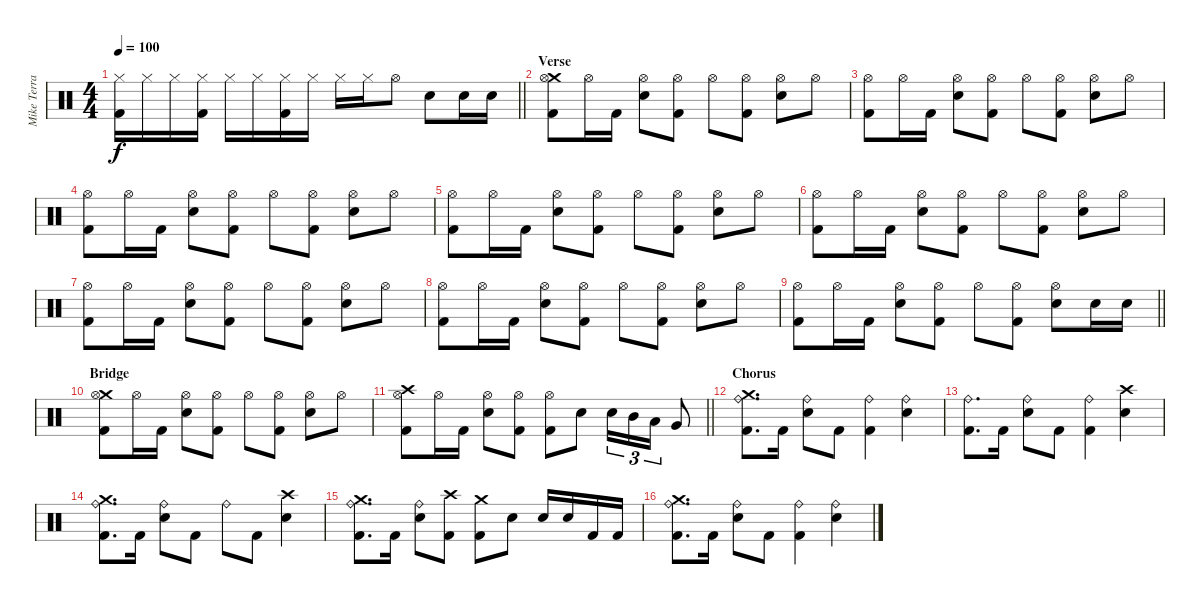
\track ("Mike Terrana" "Mike Terra") {instrument percussion}
\staff {score}
\articulation defaults
\ts (4 4)
\tempo 100
\clef neutral
\barLineRight lightlight
\ks c
("Hi-Hat (closed)" "Kick (hit) 2").16{dy f} "Hi-Hat (closed)".16 "Hi-Hat (closed)".16 ("Hi-Hat (closed)" "Kick (hit) 2").16 "Hi-Hat (closed)".16 "Hi-Hat (closed)".16 ("Hi-Hat (closed)" "Kick (hit) 2").16 "Hi-Hat (closed)".16 "Hi-Hat (closed)".16 "Hi-Hat (closed)".16 "Hi-Hat (open)".8 "Snare (hit) 2".8 "Snare (hit) 2".16 "Snare (hit) 2".16 |
\section ("" "Verse")
("Crash medium (hit)" "Hi-Hat (open)" "Kick (hit) 2").8 "Hi-Hat (open)".16 "Kick (hit) 2".16 ("Hi-Hat (open)" "Snare (hit) 2").8 ("Hi-Hat (open)" "Kick (hit) 2").8 "Hi-Hat (open)".8 ("Hi-Hat (open)" "Kick (hit) 2").8 ("Hi-Hat (open)" "Snare (hit) 2").8 "Hi-Hat (open)".8 |
("Hi-Hat (open)" "Kick (hit) 2").8 "Hi-Hat (open)".16 "Kick (hit) 2".16 ("Hi-Hat (open)" "Snare (hit) 2").8 ("Hi-Hat (open)" "Kick (hit) 2").8 "Hi-Hat (open)".8 ("Hi-Hat (open)" "Kick (hit) 2").8 ("Hi-Hat (open)" "Snare (hit) 2").8 "Hi-Hat (open)".8 |
("Hi-Hat (open)" "Kick (hit) 2").8 "Hi-Hat (open)".16 "Kick (hit) 2".16 ("Hi-Hat (open)" "Snare (hit) 2").8 ("Hi-Hat (open)" "Kick (hit) 2").8 "Hi-Hat (open)".8 ("Hi-Hat (open)" "Kick (hit) 2").8 ("Hi-Hat (open)" "Snare (hit) 2").8 "Hi-Hat (open)".8 |
("Hi-Hat (open)" "Kick (hit) 2").8 "Hi-Hat (open)".16 "Kick (hit) 2".16 ("Hi-Hat (open)" "Snare (hit) 2").8 ("Hi-Hat (open)" "Kick (hit) 2").8 "Hi-Hat (open)".8 ("Hi-Hat (open)" "Kick (hit) 2").8 ("Hi-Hat (open)" "Snare (hit) 2").8 "Hi-Hat (open)".8 |
("Hi-Hat (open)" "Kick (hit) 2").8 "Hi-Hat (open)".16 "Kick (hit) 2".16 ("Hi-Hat (open)" "Snare (hit) 2").8 ("Hi-Hat (open)" "Kick (hit) 2").8 "Hi-Hat (open)".8 ("Hi-Hat (open)" "Kick (hit) 2").8 ("Hi-Hat (open)" "Snare (hit) 2").8 "Hi-Hat (open)".8 |
("Hi-Hat (open)" "Kick (hit) 2").8 "Hi-Hat (open)".16 "Kick (hit) 2".16 ("Hi-Hat (open)" "Snare (hit) 2").8 ("Hi-Hat (open)" "Kick (hit) 2").8 "Hi-Hat (open)".8 ("Hi-Hat (open)" "Kick (hit) 2").8 ("Hi-Hat (open)" "Snare (hit) 2").8 "Hi-Hat (open)".8 |
("Hi-Hat (open)" "Kick (hit) 2").8 "Hi-Hat (open)".16 "Kick (hit) 2".16 ("Hi-Hat (open)" "Snare (hit) 2").8 ("Hi-Hat (open)" "Kick (hit) 2").8 "Hi-Hat (open)".8 ("Hi-Hat (open)" "Kick (hit) 2").8 ("Hi-Hat (open)" "Snare (hit) 2").8 "Hi-Hat (open)".8 |
\barLineRight lightlight
("Hi-Hat (open)" "Kick (hit) 2").8 "Hi-Hat (open)".16 "Kick (hit) 2".16 ("Hi-Hat (open)" "Snare (hit) 2").8 ("Hi-Hat (open)" "Kick (hit) 2").8 "Hi-Hat (open)".8 ("Hi-Hat (open)" "Kick (hit) 2").8 ("Hi-Hat (open)" "Snare (hit) 2").8 "Snare (hit) 2".16 "Snare (hit) 2".16 |
\section ("" "Bridge")
("Crash medium (hit)" "Hi-Hat (open)" "Kick (hit) 2").8 "Hi-Hat (open)".16 "Kick (hit) 2".16 ("Hi-Hat (open)" "Snare (hit) 2").8 ("Hi-Hat (open)" "Kick (hit) 2").8 "Hi-Hat (open)".8 ("Hi-Hat (open)" "Kick (hit) 2").8 ("Hi-Hat (open)" "Snare (hit) 2").8 "Hi-Hat (open)".8 |
\barLineRight lightlight
("Crash high (hit)" "Hi-Hat (open)" "Kick (hit) 2").8 "Hi-Hat (open)".16 "Kick (hit) 2".16 ("Hi-Hat (open)" "Snare (hit) 2").8 ("Hi-Hat (open)" "Kick (hit) 2").8 ("Hi-Hat (open)" "Kick (hit) 2").8 "Snare (hit) 2".8 "Snare (hit) 2".16{tu (3 2)} "Mid Tom (hit)".16{tu (3 2)} "Low Tom (hit)".16{tu (3 2)} "Very Low Tom (hit)".8 |
\section ("" "Chorus")
("Crash medium (hit)" "Ride (bell)" "Kick (hit) 2").8{d} "Kick (hit) 2".16 ("Ride (bell)" "Snare (hit) 2").8 "Kick (hit) 2".8 ("Ride (bell)" "Kick (hit) 2").4 ("Ride (bell)" "Snare (hit) 2").4 |
("Ride (bell)" "Kick (hit) 2").8{d} "Kick (hit) 2".16 ("Ride (bell)" "Snare (hit) 2").8 "Kick (hit) 2".8 ("Ride (bell)" "Kick (hit) 2").4 ("Crash high (hit)" "Snare (hit) 2").4 |
("Crash medium (hit)" "Ride (bell)" "Kick (hit) 2").8{d} "Kick (hit) 2".16 ("Ride (bell)" "Snare (hit) 2").8 "Kick (hit) 2".8 "Ride (bell)".8 "Kick (hit) 2".8 ("Crash high (hit)" "Snare (hit) 2").4 |
("Crash medium (hit)" "Ride (bell)" "Kick (hit) 2").8{d} "Kick (hit) 2".16 ("Ride (bell)" "Snare (hit) 2").8 ("Crash high (hit)" "Kick (hit) 2").8 ("Crash medium (hit)" "Kick (hit) 2").8 "Snare (hit) 2".8 "Snare (hit) 2".16 "Snare (hit) 2".16 "Kick (hit) 2".16 "Kick (hit) 2".16 |
("Crash medium (hit)" "Ride (bell)" "Kick (hit) 2").8{d} "Kick (hit) 2".16 ("Ride (bell)" "Snare (hit) 2").8 "Kick (hit) 2".8 ("Ride (bell)" "Kick (hit) 2").4 ("Ride (bell)" "Snare (hit) 2").4
